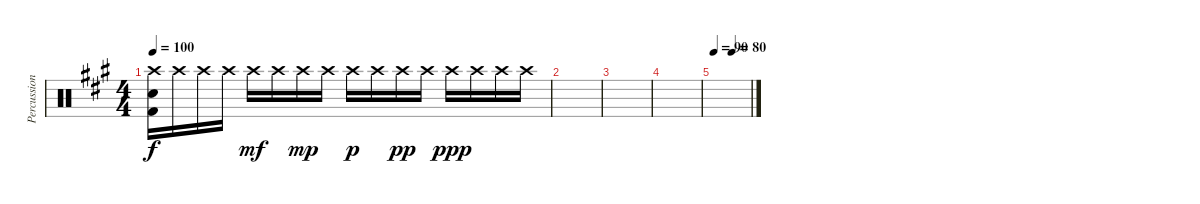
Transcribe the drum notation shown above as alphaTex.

\track ("Percussion" "Percussion") {instrument percussion}
\staff {score}
\articulation defaults
\ts (4 4)
\tempo 100
\clef neutral
\ks a
("Crash high (hit)" "Snare (hit) 2" "Kick (hit) 2").16{dy f} "Crash high (hit)".16 "Crash high (hit)".16 "Crash high (hit)".16 "Crash high (hit)".16{dy mf} "Crash high (hit)".16 "Crash high (hit)".16{dy mp} "Crash high (hit)".16 "Crash high (hit)".16{dy p} "Crash high (hit)".16 "Crash high (hit)".16{dy pp} "Crash high (hit)".16 "Crash high (hit)".16{dy ppp} "Crash high (hit)".16 "Crash high (hit)".16 "Crash high (hit)".16 |
|
|
|
\tempo 90
\tempo (80 0.5)
